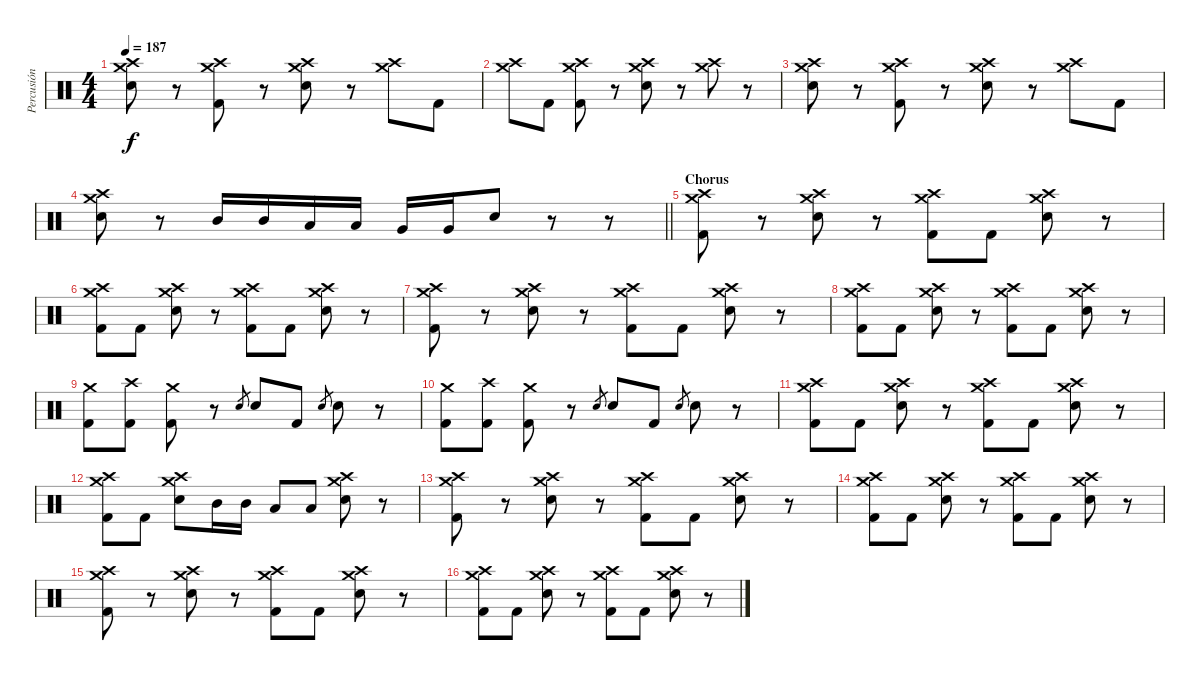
\track ("Percusión" "Percusión") {instrument percussion}
\staff {score}
\articulation defaults
\ts (4 4)
\tempo 187
\clef neutral
\ks c
("Crash high (hit)" "Crash medium (hit)" "Hand Clap (hit)").8{dy f} r.8 ("Crash high (hit)" "Crash medium (hit)" "Kick (hit) 2").8 r.8 ("Crash high (hit)" "Crash medium (hit)" "Snare (hit) 2").8 r.8 ("Crash high (hit)" "Crash medium (hit)").8 "Kick (hit) 2".8 |
("Crash high (hit)" "Crash medium (hit)").8 "Kick (hit) 2".8 ("Crash high (hit)" "Crash medium (hit)" "Kick (hit) 2").8 r.8 ("Crash high (hit)" "Crash medium (hit)" "Snare (hit) 2").8 r.8 ("Crash high (hit)" "Crash medium (hit)").8 r.8 |
("Crash high (hit)" "Crash medium (hit)" "Hand Clap (hit)").8 r.8 ("Crash high (hit)" "Crash medium (hit)" "Kick (hit) 2").8 r.8 ("Crash high (hit)" "Crash medium (hit)" "Snare (hit) 2").8 r.8 ("Crash high (hit)" "Crash medium (hit)").8 "Kick (hit) 2".8 |
\barLineRight lightlight
("Crash high (hit)" "Crash medium (hit)" "Snare (hit) 2").8 r.8 "Mid Tom (hit)".16 "Mid Tom (hit)".16 "Low Tom (hit)".16 "Low Tom (hit)".16 "Very Low Tom (hit)".16 "Very Low Tom (hit)".16 "Snare (hit) 2".8 r.8 r.8 |
\section ("" "Chorus")
("Crash high (hit)" "Crash medium (hit)" "Kick (hit) 2").8 r.8 ("Crash high (hit)" "Crash medium (hit)" "Snare (hit) 2").8 r.8 ("Crash high (hit)" "Crash medium (hit)" "Kick (hit) 2").8 "Kick (hit) 2".8 ("Crash high (hit)" "Crash medium (hit)" "Snare (hit) 2").8 r.8 |
("Crash high (hit)" "Crash medium (hit)" "Kick (hit) 2").8 "Kick (hit) 2".8 ("Crash high (hit)" "Crash medium (hit)" "Snare (hit) 2").8 r.8 ("Crash high (hit)" "Crash medium (hit)" "Kick (hit) 2").8 "Kick (hit) 2".8 ("Crash high (hit)" "Crash medium (hit)" "Snare (hit) 2").8 r.8 |
("Crash high (hit)" "Crash medium (hit)" "Kick (hit) 2").8 r.8 ("Crash high (hit)" "Crash medium (hit)" "Snare (hit) 2").8 r.8 ("Crash high (hit)" "Crash medium (hit)" "Kick (hit) 2").8 "Kick (hit) 2".8 ("Crash high (hit)" "Crash medium (hit)" "Snare (hit) 2").8 r.8 |
("Crash high (hit)" "Crash medium (hit)" "Kick (hit) 2").8 "Kick (hit) 2".8 ("Crash high (hit)" "Crash medium (hit)" "Snare (hit) 2").8 r.8 ("Crash high (hit)" "Crash medium (hit)" "Kick (hit) 2").8 "Kick (hit) 2".8 ("Crash high (hit)" "Crash medium (hit)" "Snare (hit) 2").8 r.8 |
("Crash medium (hit)" "Kick (hit) 2").8 ("Crash high (hit)" "Kick (hit) 2").8 ("Crash medium (hit)" "Kick (hit) 2").8 r.8 "Snare (hit) 2".8{gr} "Snare (hit) 2".8 "Kick (hit) 2".8 "Snare (hit) 2".8{gr} "Snare (hit) 2".8 r.8 |
("Crash medium (hit)" "Kick (hit) 2").8 ("Crash high (hit)" "Kick (hit) 2").8 ("Crash medium (hit)" "Kick (hit) 2").8 r.8 "Snare (hit) 2".8{gr} "Snare (hit) 2".8 "Kick (hit) 2".8 "Snare (hit) 2".8{gr} "Snare (hit) 2".8 r.8 |
("Crash high (hit)" "Crash medium (hit)" "Kick (hit) 2").8 "Kick (hit) 2".8 ("Crash high (hit)" "Crash medium (hit)" "Snare (hit) 2").8 r.8 ("Crash high (hit)" "Crash medium (hit)" "Kick (hit) 2").8 "Kick (hit) 2".8 ("Crash high (hit)" "Crash medium (hit)" "Snare (hit) 2").8 r.8 |
("Crash high (hit)" "Crash medium (hit)" "Kick (hit) 2").8 "Kick (hit) 2".8 ("Crash high (hit)" "Crash medium (hit)" "Snare (hit) 2").8 "Mid Tom (hit)".16 "Mid Tom (hit)".16 "Low Tom (hit)".8 "Low Tom (hit)".8 ("Crash high (hit)" "Crash medium (hit)" "Snare (hit) 2").8 r.8 |
("Crash high (hit)" "Crash medium (hit)" "Kick (hit) 2").8 r.8 ("Crash high (hit)" "Crash medium (hit)" "Snare (hit) 2").8 r.8 ("Crash high (hit)" "Crash medium (hit)" "Kick (hit) 2").8 "Kick (hit) 2".8 ("Crash high (hit)" "Crash medium (hit)" "Snare (hit) 2").8 r.8 |
("Crash high (hit)" "Crash medium (hit)" "Kick (hit) 2").8 "Kick (hit) 2".8 ("Crash high (hit)" "Crash medium (hit)" "Snare (hit) 2").8 r.8 ("Crash high (hit)" "Crash medium (hit)" "Kick (hit) 2").8 "Kick (hit) 2".8 ("Crash high (hit)" "Crash medium (hit)" "Snare (hit) 2").8 r.8 |
("Crash high (hit)" "Crash medium (hit)" "Kick (hit) 2").8 r.8 ("Crash high (hit)" "Crash medium (hit)" "Snare (hit) 2").8 r.8 ("Crash high (hit)" "Crash medium (hit)" "Kick (hit) 2").8 "Kick (hit) 2".8 ("Crash high (hit)" "Crash medium (hit)" "Snare (hit) 2").8 r.8 |
("Crash high (hit)" "Crash medium (hit)" "Kick (hit) 2").8 "Kick (hit) 2".8 ("Crash high (hit)" "Crash medium (hit)" "Snare (hit) 2").8 r.8 ("Crash high (hit)" "Crash medium (hit)" "Kick (hit) 2").8 "Kick (hit) 2".8 ("Crash high (hit)" "Crash medium (hit)" "Snare (hit) 2").8 r.8
